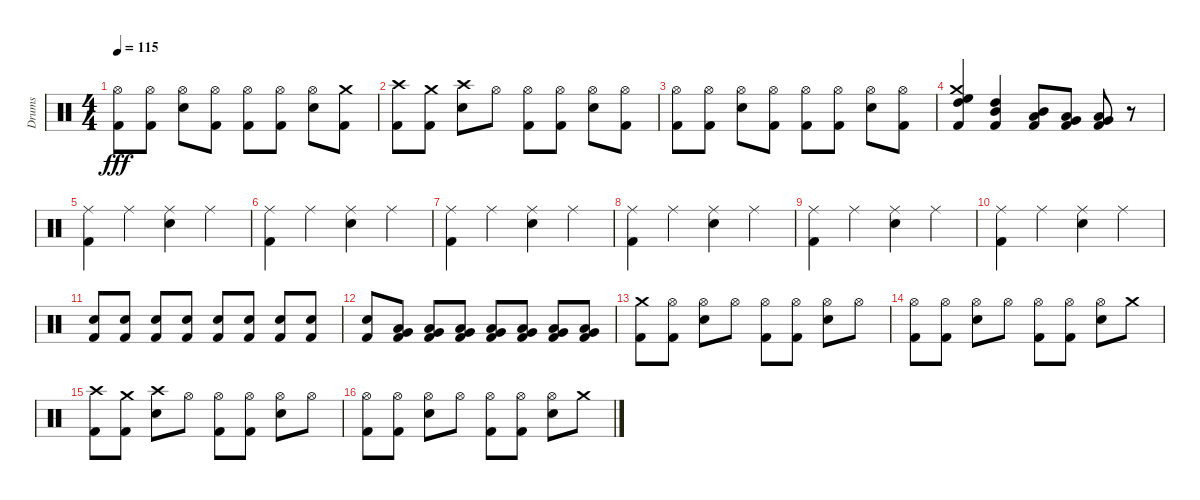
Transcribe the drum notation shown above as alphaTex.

\track ("Drums" "Drums") {instrument percussion}
\staff {score}
\articulation defaults
\ts (4 4)
\tempo 115
\clef neutral
\ks c
("Hi-Hat (open)" "Kick (hit) 2").8{dy fff} ("Hi-Hat (open)" "Kick (hit) 2").8 ("Hi-Hat (open)" "Electric Snare (hit)").8 ("Kick (hit) 2" "Hi-Hat (open)").8 ("Hi-Hat (open)" "Kick (hit) 2").8 ("Hi-Hat (open)" "Kick (hit) 2").8 ("Hi-Hat (open)" "Electric Snare (hit)").8 ("Crash medium (hit)" "Kick (hit) 2").8 |
("Kick (hit) 2" "Crash high (hit)").8 ("Crash medium (hit)" "Kick (hit) 2").8 ("Crash high (hit)" "Electric Snare (hit)").8 "Hi-Hat (open)".8 ("Hi-Hat (open)" "Kick (hit) 2").8 ("Hi-Hat (open)" "Kick (hit) 2").8 ("Hi-Hat (open)" "Electric Snare (hit)").8 ("Hi-Hat (open)" "Kick (hit) 2").8 |
("Hi-Hat (open)" "Kick (hit) 2").8 ("Hi-Hat (open)" "Kick (hit) 2").8 ("Hi-Hat (open)" "Electric Snare (hit)").8 ("Hi-Hat (open)" "Kick (hit) 2").8 ("Hi-Hat (open)" "Kick (hit) 2").8 ("Hi-Hat (open)" "Kick (hit) 2").8 ("Hi-Hat (open)" "Electric Snare (hit)").8 ("Kick (hit) 2" "Hi-Hat (open)").8 |
("High Floor Tom (hit)" "High Tom (hit)" "Kick (hit) 2" "Crash medium (hit)").4 ("High Tom (hit)" "Kick (hit) 2" "Mid Tom (hit)").4 ("Mid Tom (hit)" "Kick (hit) 2" "Low Tom (hit)").8 ("Low Tom (hit)" "Kick (hit) 2" "Very Low Tom (hit)").8 ("Very Low Tom (hit)" "Kick (hit) 2" "Low Floor Tom (hit)").8 r.8 |
("Kick (hit) 2" "Ride (middle)").4 "Ride (middle)".4 ("Electric Snare (hit)" "Ride (middle)").4 "Ride (middle)".4 |
("Kick (hit) 2" "Ride (middle)").4 "Ride (middle)".4 ("Electric Snare (hit)" "Ride (middle)").4 "Ride (middle)".4 |
("Kick (hit) 2" "Ride (middle)").4 "Ride (middle)".4 ("Electric Snare (hit)" "Ride (middle)").4 "Ride (middle)".4 |
("Kick (hit) 2" "Ride (middle)").4 "Ride (middle)".4 ("Electric Snare (hit)" "Ride (middle)").4 "Ride (middle)".4 |
("Kick (hit) 2" "Ride (middle)").4 "Ride (middle)".4 ("Electric Snare (hit)" "Ride (middle)").4 "Ride (middle)".4 |
("Kick (hit) 2" "Ride (middle)").4 "Ride (middle)".4 ("Electric Snare (hit)" "Ride (middle)").4 "Ride (middle)".4 |
("Kick (hit) 2" "Electric Snare (hit)").8 ("Electric Snare (hit)" "Kick (hit) 2").8 ("Electric Snare (hit)" "Kick (hit) 2").8 ("Electric Snare (hit)" "Kick (hit) 2").8 ("Electric Snare (hit)" "Kick (hit) 2").8 ("Electric Snare (hit)" "Kick (hit) 2").8 ("Electric Snare (hit)" "Kick (hit) 2").8 ("Electric Snare (hit)" "Kick (hit) 2").8 |
("Electric Snare (hit)" "Kick (hit) 2").8 ("Low Tom (hit)" "Kick (hit) 2" "Very Low Tom (hit)").8 ("Kick (hit) 2" "Very Low Tom (hit)" "Low Tom (hit)").8 ("Low Tom (hit)" "Very Low Tom (hit)" "Kick (hit) 2").8 ("Low Floor Tom (hit)" "Kick (hit) 2" "Very Low Tom (hit)").8 ("Low Floor Tom (hit)" "Kick (hit) 2" "Very Low Tom (hit)").8 ("Low Floor Tom (hit)" "Kick (hit) 2" "Very Low Tom (hit)").8 ("Kick (hit) 2" "Very Low Tom (hit)" "Low Floor Tom (hit)").8 |
("Kick (hit) 2" "Crash medium (hit)").8 ("Hi-Hat (open)" "Kick (hit) 2").8 ("Hi-Hat (open)" "Electric Snare (hit)").8 "Hi-Hat (open)".8 ("Hi-Hat (open)" "Kick (hit) 2").8 ("Hi-Hat (open)" "Kick (hit) 2").8 ("Hi-Hat (open)" "Electric Snare (hit)").8 "Hi-Hat (open)".8 |
("Hi-Hat (open)" "Kick (hit) 2").8 ("Hi-Hat (open)" "Kick (hit) 2").8 ("Hi-Hat (open)" "Electric Snare (hit)").8 "Hi-Hat (open)".8 ("Hi-Hat (open)" "Kick (hit) 2").8 ("Hi-Hat (open)" "Kick (hit) 2").8 ("Hi-Hat (open)" "Electric Snare (hit)").8 "Crash medium (hit)".8 |
("Kick (hit) 2" "Crash high (hit)").8 ("Kick (hit) 2" "Crash medium (hit)").8 ("Electric Snare (hit)" "Crash high (hit)").8 "Hi-Hat (open)".8 ("Kick (hit) 2" "Hi-Hat (open)").8 ("Kick (hit) 2" "Hi-Hat (open)").8 ("Electric Snare (hit)" "Hi-Hat (open)").8 "Hi-Hat (open)".8 |
("Hi-Hat (open)" "Kick (hit) 2").8 ("Hi-Hat (open)" "Kick (hit) 2").8 ("Hi-Hat (open)" "Electric Snare (hit)").8 "Hi-Hat (open)".8 ("Hi-Hat (open)" "Kick (hit) 2").8 ("Hi-Hat (open)" "Kick (hit) 2").8 ("Hi-Hat (open)" "Electric Snare (hit)").8 "Crash medium (hit)".8
